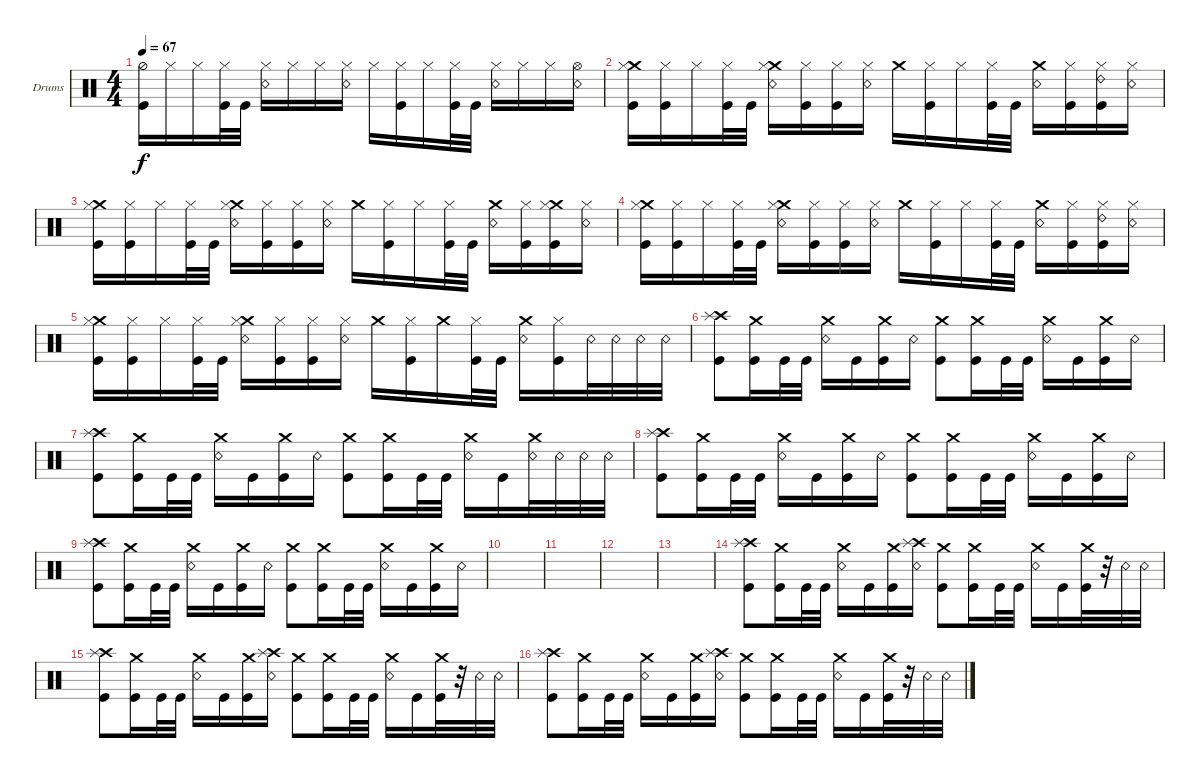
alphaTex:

\defaultSystemsLayout 4
\bracketExtendMode groupsimilarinstruments
\firstSystemTrackNameOrientation horizontal
\otherSystemsTrackNameOrientation horizontal
\track ("Drumkit" "Drums") {instrument percussion}
\staff {score}
\articulation defaults
\ts (4 4)
\tempo 67
\clef neutral
\ks c
("Kick (hit)" "Hi-Hat (half)").16{dy f} "Hi-Hat (closed)".16 "Hi-Hat (closed)".16 ("Kick (hit)" "Hi-Hat (closed)").32 "Kick (hit)".32 ("Snare (rim shot)" "Hi-Hat (closed)").16 "Hi-Hat (closed)".16 "Hi-Hat (closed)".16 ("Snare (rim shot)" "Hi-Hat (closed)").16 "Hi-Hat (closed)".16 ("Hi-Hat (closed)" "Kick (hit)").16 "Hi-Hat (closed)".16 ("Hi-Hat (closed)" "Kick (hit)").32 "Kick (hit)".32 ("Snare (rim shot)" "Hi-Hat (closed)").16 "Hi-Hat (closed)".16 "Hi-Hat (closed)".16 ("Snare (rim shot)" "Hi-Hat (open)").16 |
("Kick (hit)" "Crash medium (hit)" "Hi-Hat (closed)").16 ("Kick (hit)" "Hi-Hat (closed)").16 "Hi-Hat (closed)".16 ("Kick (hit)" "Hi-Hat (closed)").32 "Kick (hit)".32 ("Snare (rim shot)" "Crash medium (hit)" "Hi-Hat (closed)").16 ("Kick (hit)" "Hi-Hat (closed)").16 ("Kick (hit)" "Hi-Hat (closed)").16 ("Snare (rim shot)" "Hi-Hat (closed)").16 "Crash medium (hit)".16 ("Kick (hit)" "Hi-Hat (closed)").16 "Hi-Hat (closed)".16 ("Kick (hit)" "Hi-Hat (closed)").32 "Kick (hit)".32 ("Snare (rim shot)" "Crash medium (hit)").16 ("Kick (hit)" "Hi-Hat (closed)").16 ("Kick (hit)" "Ride (bell) 2" "Hi-Hat (closed)").16 ("Snare (rim shot)" "Hi-Hat (closed)").16 |
("Kick (hit)" "Crash medium (hit)" "Hi-Hat (closed)").16 ("Kick (hit)" "Hi-Hat (closed)").16 "Hi-Hat (closed)".16 ("Kick (hit)" "Hi-Hat (closed)").32 "Kick (hit)".32 ("Snare (rim shot)" "Crash medium (hit)" "Hi-Hat (closed)").16 ("Kick (hit)" "Hi-Hat (closed)").16 ("Kick (hit)" "Hi-Hat (closed)").16 ("Snare (rim shot)" "Hi-Hat (closed)").16 "Crash medium (hit)".16 ("Kick (hit)" "Hi-Hat (closed)").16 "Hi-Hat (closed)".16 ("Kick (hit)" "Hi-Hat (closed)").32 "Kick (hit)".32 ("Snare (rim shot)" "Crash medium (hit)").16 ("Kick (hit)" "Hi-Hat (closed)").16 ("Kick (hit)" "Crash medium (hit)" "Hi-Hat (closed)").16 ("Snare (rim shot)" "Hi-Hat (closed)").16 |
("Kick (hit)" "Crash medium (hit)" "Hi-Hat (closed)").16 ("Kick (hit)" "Hi-Hat (closed)").16 "Hi-Hat (closed)".16 ("Kick (hit)" "Hi-Hat (closed)").32 "Kick (hit)".32 ("Snare (rim shot)" "Crash medium (hit)" "Hi-Hat (closed)").16 ("Kick (hit)" "Hi-Hat (closed)").16 ("Kick (hit)" "Hi-Hat (closed)").16 ("Snare (rim shot)" "Hi-Hat (closed)").16 "Crash medium (hit)".16 ("Kick (hit)" "Hi-Hat (closed)").16 "Hi-Hat (closed)".16 ("Kick (hit)" "Hi-Hat (closed)").32 "Kick (hit)".32 ("Snare (rim shot)" "Crash medium (hit)").16 ("Kick (hit)" "Hi-Hat (closed)").16 ("Kick (hit)" "Ride (bell) 2" "Hi-Hat (closed)").16 ("Snare (rim shot)" "Hi-Hat (closed)").16 |
("Kick (hit)" "Crash medium (hit)" "Hi-Hat (closed)").16 ("Kick (hit)" "Hi-Hat (closed)").16 "Hi-Hat (closed)".16 ("Kick (hit)" "Hi-Hat (closed)").32 "Kick (hit)".32 ("Snare (rim shot)" "Crash medium (hit)" "Hi-Hat (closed)").16 ("Kick (hit)" "Hi-Hat (closed)").16 ("Kick (hit)" "Hi-Hat (closed)").16 ("Snare (rim shot)" "Hi-Hat (closed)").16 "Crash medium (hit)".16 ("Kick (hit)" "Hi-Hat (closed)").16 "Crash medium (hit)".16 ("Kick (hit)" "Hi-Hat (closed)").32 "Kick (hit)".32 ("Snare (rim shot)" "Crash medium (hit)").16 ("Kick (hit)" "Hi-Hat (closed)").16 "Snare (rim shot)".32 "Snare (rim shot)".32 "Snare (rim shot)".32 "Snare (rim shot)".32 |
("Kick (hit)" "Crash high (hit)" "Splash (hit)").8 ("Kick (hit)" "Crash medium (hit)").16 "Kick (hit)".32 "Kick (hit)".32 ("Snare (rim shot)" "Crash medium (hit)").16 "Kick (hit)".16 ("Kick (hit)" "Crash medium (hit)").16 "Snare (rim shot)".16 ("Kick (hit)" "Crash medium (hit)").8 ("Kick (hit)" "Crash medium (hit)").16 "Kick (hit)".32 "Kick (hit)".32 ("Snare (rim shot)" "Crash medium (hit)").16 "Kick (hit)".16 ("Kick (hit)" "Crash medium (hit)").16 "Snare (rim shot)".16 |
("Kick (hit)" "Crash high (hit)" "Splash (hit)").8 ("Kick (hit)" "Crash medium (hit)").16 "Kick (hit)".32 "Kick (hit)".32 ("Snare (rim shot)" "Crash medium (hit)").16 "Kick (hit)".16 ("Kick (hit)" "Crash medium (hit)").16 "Snare (rim shot)".16 ("Kick (hit)" "Crash medium (hit)").8 ("Kick (hit)" "Crash medium (hit)").16 "Kick (hit)".32 "Kick (hit)".32 ("Snare (rim shot)" "Crash medium (hit)").16 "Kick (hit)".16 ("Crash medium (hit)" "Snare (rim shot)").32 "Snare (rim shot)".32 "Snare (rim shot)".32 "Snare (rim shot)".32 |
("Kick (hit)" "Crash high (hit)" "Splash (hit)").8 ("Kick (hit)" "Crash medium (hit)").16 "Kick (hit)".32 "Kick (hit)".32 ("Snare (rim shot)" "Crash medium (hit)").16 "Kick (hit)".16 ("Kick (hit)" "Crash medium (hit)").16 "Snare (rim shot)".16 ("Kick (hit)" "Crash medium (hit)").8 ("Kick (hit)" "Crash medium (hit)").16 "Kick (hit)".32 "Kick (hit)".32 ("Snare (rim shot)" "Crash medium (hit)").16 "Kick (hit)".16 ("Kick (hit)" "Crash medium (hit)").16 "Snare (rim shot)".16 |
("Kick (hit)" "Crash high (hit)" "Splash (hit)").8 ("Kick (hit)" "Crash medium (hit)").16 "Kick (hit)".32 "Kick (hit)".32 ("Snare (rim shot)" "Crash medium (hit)").16 "Kick (hit)".16 ("Kick (hit)" "Crash medium (hit)").16 "Snare (rim shot)".16 ("Kick (hit)" "Crash medium (hit)").8 ("Kick (hit)" "Crash medium (hit)").16 "Kick (hit)".32 "Kick (hit)".32 ("Snare (rim shot)" "Crash medium (hit)").16 "Kick (hit)".16 ("Kick (hit)" "Crash medium (hit)").16 "Snare (rim shot)".16 |
|
|
|
|
("Kick (hit)" "Crash high (hit)" "Splash (hit)").8 ("Kick (hit)" "Crash medium (hit)").16 "Kick (hit)".32 "Kick (hit)".32 ("Snare (rim shot)" "Crash medium (hit)").16 "Kick (hit)".16 ("Kick (hit)" "Crash medium (hit)").16 ("Snare (rim shot)" "Crash high (hit)" "Splash (hit)").16 ("Kick (hit)" "Crash medium (hit)").8 ("Kick (hit)" "Crash medium (hit)").16 "Kick (hit)".32 "Kick (hit)".32 ("Snare (rim shot)" "Crash medium (hit)").16 "Kick (hit)".16 ("Kick (hit)" "Crash medium (hit)").32 r.32 "Snare (rim shot)".32 "Snare (rim shot)".32 |
("Kick (hit)" "Crash high (hit)" "Splash (hit)").8 ("Kick (hit)" "Crash medium (hit)").16 "Kick (hit)".32 "Kick (hit)".32 ("Snare (rim shot)" "Crash medium (hit)").16 "Kick (hit)".16 ("Kick (hit)" "Crash medium (hit)").16 ("Snare (rim shot)" "Crash high (hit)" "Splash (hit)").16 ("Kick (hit)" "Crash medium (hit)").8 ("Kick (hit)" "Crash medium (hit)").16 "Kick (hit)".32 "Kick (hit)".32 ("Snare (rim shot)" "Crash medium (hit)").16 "Kick (hit)".16 ("Kick (hit)" "Crash medium (hit)").32 r.32 "Snare (rim shot)".32 "Snare (rim shot)".32 |
("Kick (hit)" "Crash high (hit)" "Splash (hit)").8 ("Kick (hit)" "Crash medium (hit)").16 "Kick (hit)".32 "Kick (hit)".32 ("Snare (rim shot)" "Crash medium (hit)").16 "Kick (hit)".16 ("Kick (hit)" "Crash medium (hit)").16 ("Snare (rim shot)" "Crash high (hit)" "Splash (hit)").16 ("Kick (hit)" "Crash medium (hit)").8 ("Kick (hit)" "Crash medium (hit)").16 "Kick (hit)".32 "Kick (hit)".32 ("Snare (rim shot)" "Crash medium (hit)").16 "Kick (hit)".16 ("Kick (hit)" "Crash medium (hit)").32 r.32 "Snare (rim shot)".32 "Snare (rim shot)".32
